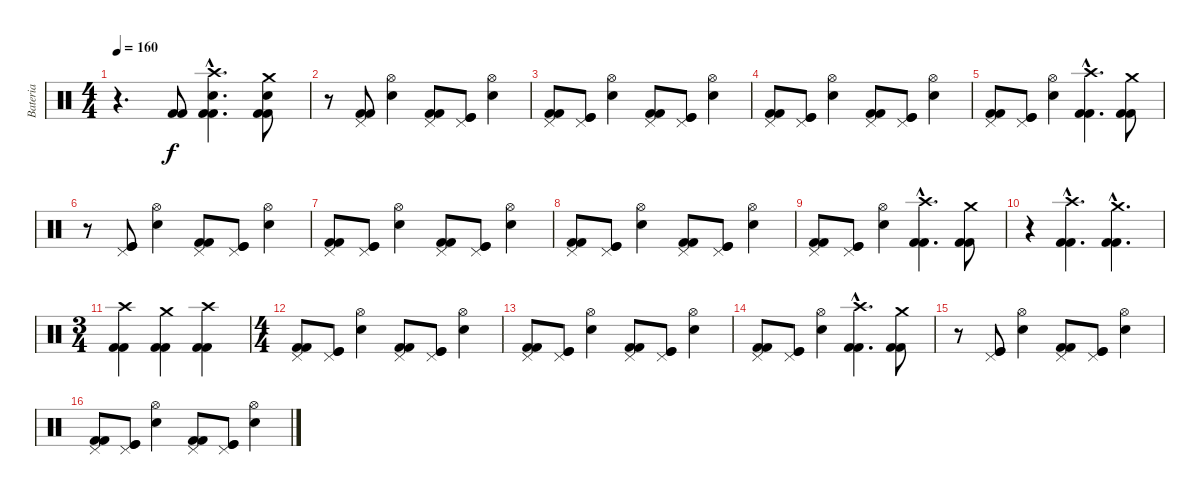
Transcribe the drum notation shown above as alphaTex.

\track ("Bateria" "Bateria") {instrument percussion}
\staff {score}
\articulation defaults
\ts (4 4)
\tempo 160
\clef neutral
\ks c
r.4{d dy f} ("Kick (hit) 2" "Kick (hit) 2").8 ("Kick (hit) 2"{hac} "Kick (hit) 2"{hac} "Snare (hit) 2"{hac} "Crash high (hit)"{hac}).4{d} ("Kick (hit) 2" "Kick (hit) 2" "Snare (hit) 2" "Crash medium (hit)").8 |
r.8 ("Kick (hit) 2" "Kick (hit) 2" "Pedal Hi-Hat (hit)").8 ("Snare (hit) 2" "Hi-Hat (open)").4 ("Kick (hit) 2" "Kick (hit) 2" "Pedal Hi-Hat (hit)").8 ("Kick (hit)" "Kick (hit)" "Pedal Hi-Hat (hit)").8 ("Snare (hit) 2" "Hi-Hat (open)").4 |
("Kick (hit) 2" "Kick (hit) 2" "Pedal Hi-Hat (hit)").8 ("Kick (hit)" "Kick (hit)" "Pedal Hi-Hat (hit)").8 ("Snare (hit) 2" "Hi-Hat (open)").4 ("Kick (hit) 2" "Kick (hit) 2" "Pedal Hi-Hat (hit)").8 ("Kick (hit)" "Kick (hit)" "Pedal Hi-Hat (hit)").8 ("Snare (hit) 2" "Hi-Hat (open)").4 |
("Kick (hit) 2" "Kick (hit) 2" "Pedal Hi-Hat (hit)").8 ("Kick (hit)" "Kick (hit)" "Pedal Hi-Hat (hit)").8 ("Snare (hit) 2" "Hi-Hat (open)").4 ("Kick (hit) 2" "Kick (hit) 2" "Pedal Hi-Hat (hit)").8 ("Kick (hit)" "Kick (hit)" "Pedal Hi-Hat (hit)").8 ("Snare (hit) 2" "Hi-Hat (open)").4 |
("Kick (hit) 2" "Kick (hit) 2" "Pedal Hi-Hat (hit)").8 ("Kick (hit)" "Kick (hit)" "Pedal Hi-Hat (hit)").8 ("Snare (hit) 2" "Hi-Hat (open)").4 ("Kick (hit) 2"{hac} "Kick (hit) 2"{hac} "Crash high (hit)"{hac}).4{d} ("Kick (hit) 2" "Kick (hit) 2" "Crash medium (hit)").8 |
r.8 ("Kick (hit)" "Kick (hit)" "Pedal Hi-Hat (hit)").8 ("Snare (hit) 2" "Hi-Hat (open)").4 ("Kick (hit) 2" "Kick (hit) 2" "Pedal Hi-Hat (hit)").8 ("Kick (hit)" "Kick (hit)" "Pedal Hi-Hat (hit)").8 ("Snare (hit) 2" "Hi-Hat (open)").4 |
("Kick (hit) 2" "Kick (hit) 2" "Pedal Hi-Hat (hit)").8 ("Kick (hit)" "Kick (hit)" "Pedal Hi-Hat (hit)").8 ("Snare (hit) 2" "Hi-Hat (open)").4 ("Kick (hit) 2" "Kick (hit) 2" "Pedal Hi-Hat (hit)").8 ("Kick (hit)" "Kick (hit)" "Pedal Hi-Hat (hit)").8 ("Snare (hit) 2" "Hi-Hat (open)").4 |
("Kick (hit) 2" "Kick (hit) 2" "Pedal Hi-Hat (hit)").8 ("Kick (hit)" "Kick (hit)" "Pedal Hi-Hat (hit)").8 ("Snare (hit) 2" "Hi-Hat (open)").4 ("Kick (hit) 2" "Kick (hit) 2" "Pedal Hi-Hat (hit)").8 ("Kick (hit)" "Kick (hit)" "Pedal Hi-Hat (hit)").8 ("Snare (hit) 2" "Hi-Hat (open)").4 |
("Kick (hit) 2" "Kick (hit) 2" "Pedal Hi-Hat (hit)").8 ("Kick (hit)" "Kick (hit)" "Pedal Hi-Hat (hit)").8 ("Snare (hit) 2" "Hi-Hat (open)").4 ("Kick (hit) 2"{hac} "Kick (hit) 2"{hac} "Crash high (hit)"{hac}).4{d} ("Kick (hit) 2" "Kick (hit) 2" "Crash medium (hit)").8 |
r.4 ("Kick (hit) 2"{hac} "Kick (hit) 2"{hac} "Crash high (hit)"{hac}).4{d} ("Kick (hit) 2"{hac} "Kick (hit) 2"{hac} "Crash medium (hit)"{hac}).4{d} |
\ts (3 4)
("Kick (hit) 2" "Kick (hit) 2" "Crash high (hit)").4 ("Kick (hit) 2" "Kick (hit) 2" "Crash medium (hit)").4 ("Kick (hit) 2" "Kick (hit) 2" "Crash high (hit)").4 |
\ts (4 4)
("Kick (hit) 2" "Kick (hit) 2" "Pedal Hi-Hat (hit)").8 ("Kick (hit)" "Kick (hit)" "Pedal Hi-Hat (hit)").8 ("Snare (hit) 2" "Hi-Hat (open)").4 ("Kick (hit) 2" "Kick (hit) 2" "Pedal Hi-Hat (hit)").8 ("Kick (hit)" "Kick (hit)" "Pedal Hi-Hat (hit)").8 ("Snare (hit) 2" "Hi-Hat (open)").4 |
("Kick (hit) 2" "Kick (hit) 2" "Pedal Hi-Hat (hit)").8 ("Kick (hit)" "Kick (hit)" "Pedal Hi-Hat (hit)").8 ("Snare (hit) 2" "Hi-Hat (open)").4 ("Kick (hit) 2" "Kick (hit) 2" "Pedal Hi-Hat (hit)").8 ("Kick (hit)" "Kick (hit)" "Pedal Hi-Hat (hit)").8 ("Snare (hit) 2" "Hi-Hat (open)").4 |
("Kick (hit) 2" "Kick (hit) 2" "Pedal Hi-Hat (hit)").8 ("Kick (hit)" "Kick (hit)" "Pedal Hi-Hat (hit)").8 ("Snare (hit) 2" "Hi-Hat (open)").4 ("Kick (hit) 2"{hac} "Kick (hit) 2"{hac} "Crash high (hit)"{hac}).4{d} ("Kick (hit) 2" "Kick (hit) 2" "Crash medium (hit)").8 |
r.8 ("Kick (hit)" "Kick (hit)" "Pedal Hi-Hat (hit)").8 ("Snare (hit) 2" "Hi-Hat (open)").4 ("Kick (hit) 2" "Kick (hit) 2" "Pedal Hi-Hat (hit)").8 ("Kick (hit)" "Kick (hit)" "Pedal Hi-Hat (hit)").8 ("Snare (hit) 2" "Hi-Hat (open)").4 |
("Kick (hit) 2" "Kick (hit) 2" "Pedal Hi-Hat (hit)").8 ("Kick (hit)" "Kick (hit)" "Pedal Hi-Hat (hit)").8 ("Snare (hit) 2" "Hi-Hat (open)").4 ("Kick (hit) 2" "Kick (hit) 2" "Pedal Hi-Hat (hit)").8 ("Kick (hit)" "Kick (hit)" "Pedal Hi-Hat (hit)").8 ("Snare (hit) 2" "Hi-Hat (open)").4
